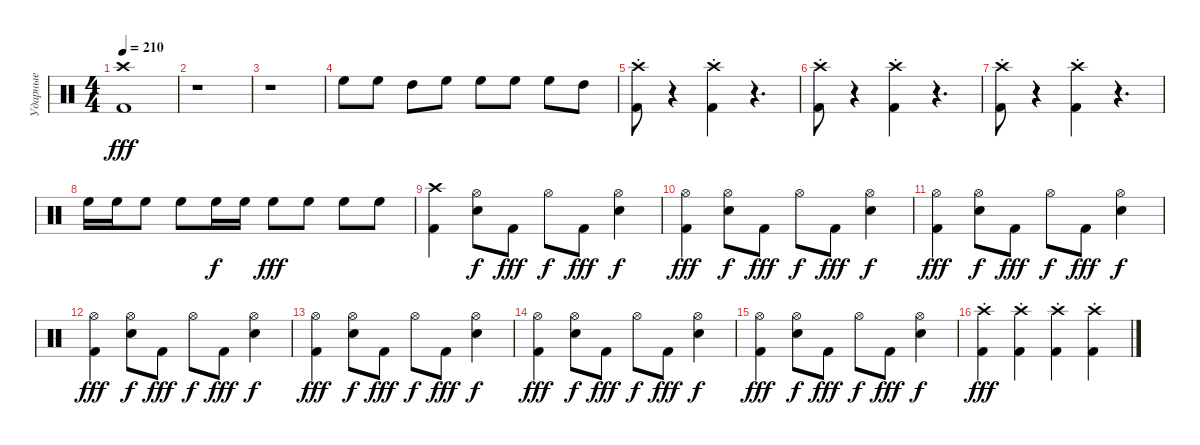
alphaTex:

\track ("Ударные" "Ударные") {instrument percussion}
\staff {score}
\articulation defaults
\ts (4 4)
\tempo 210
\clef neutral
\ks c
("Kick (hit) 2" "Crash high (hit)").1{dy fff} |
r.1 |
r.1 |
"High Floor Tom (hit)".8 "High Floor Tom (hit)".8 "High Tom (hit)".8 "High Floor Tom (hit)".8 "High Floor Tom (hit)".8 "High Floor Tom (hit)".8 "High Floor Tom (hit)".8 "High Tom (hit)".8 |
("Kick (hit) 2"{st} "Crash high (hit)"{st}).8 r.4 ("Kick (hit) 2"{st} "Crash high (hit)"{st}).4 r.4{d} |
("Kick (hit) 2"{st} "Crash high (hit)"{st}).8 r.4 ("Kick (hit) 2"{st} "Crash high (hit)"{st}).4 r.4{d} |
("Kick (hit) 2"{st} "Crash high (hit)"{st}).8 r.4 ("Kick (hit) 2"{st} "Crash high (hit)"{st}).4 r.4{d} |
"High Floor Tom (hit)".16 "High Floor Tom (hit)".16 "High Floor Tom (hit)".8 "High Floor Tom (hit)".8 "High Floor Tom (hit)".16{dy f} "High Floor Tom (hit)".16 "High Floor Tom (hit)".8{dy fff} "High Floor Tom (hit)".8 "High Floor Tom (hit)".8 "High Floor Tom (hit)".8 |
("Kick (hit) 2" "Crash high (hit)").4 ("Snare (hit) 2" "Hi-Hat (open)").8{dy f} "Kick (hit) 2".8{dy fff} "Hi-Hat (open)".8{dy f} "Kick (hit) 2".8{dy fff} ("Snare (hit) 2" "Hi-Hat (open)").4{dy f} |
("Kick (hit) 2" "Hi-Hat (open)").4{dy fff} ("Snare (hit) 2" "Hi-Hat (open)").8{dy f} "Kick (hit) 2".8{dy fff} "Hi-Hat (open)".8{dy f} "Kick (hit) 2".8{dy fff} ("Snare (hit) 2" "Hi-Hat (open)").4{dy f} |
("Kick (hit) 2" "Hi-Hat (open)").4{dy fff} ("Snare (hit) 2" "Hi-Hat (open)").8{dy f} "Kick (hit) 2".8{dy fff} "Hi-Hat (open)".8{dy f} "Kick (hit) 2".8{dy fff} ("Snare (hit) 2" "Hi-Hat (open)").4{dy f} |
("Kick (hit) 2" "Hi-Hat (open)").4{dy fff} ("Snare (hit) 2" "Hi-Hat (open)").8{dy f} "Kick (hit) 2".8{dy fff} "Hi-Hat (open)".8{dy f} "Kick (hit) 2".8{dy fff} ("Snare (hit) 2" "Hi-Hat (open)").4{dy f} |
("Kick (hit) 2" "Hi-Hat (open)").4{dy fff} ("Snare (hit) 2" "Hi-Hat (open)").8{dy f} "Kick (hit) 2".8{dy fff} "Hi-Hat (open)".8{dy f} "Kick (hit) 2".8{dy fff} ("Snare (hit) 2" "Hi-Hat (open)").4{dy f} |
("Kick (hit) 2" "Hi-Hat (open)").4{dy fff} ("Snare (hit) 2" "Hi-Hat (open)").8{dy f} "Kick (hit) 2".8{dy fff} "Hi-Hat (open)".8{dy f} "Kick (hit) 2".8{dy fff} ("Snare (hit) 2" "Hi-Hat (open)").4{dy f} |
("Kick (hit) 2" "Hi-Hat (open)").4{dy fff} ("Snare (hit) 2" "Hi-Hat (open)").8{dy f} "Kick (hit) 2".8{dy fff} "Hi-Hat (open)".8{dy f} "Kick (hit) 2".8{dy fff} ("Snare (hit) 2" "Hi-Hat (open)").4{dy f} |
("Kick (hit) 2"{st} "Crash high (hit)"{st}).4{dy fff} ("Kick (hit) 2"{st} "Crash high (hit)"{st}).4 ("Kick (hit) 2"{st} "Crash high (hit)"{st}).4 ("Kick (hit) 2"{st} "Crash high (hit)"{st}).4
